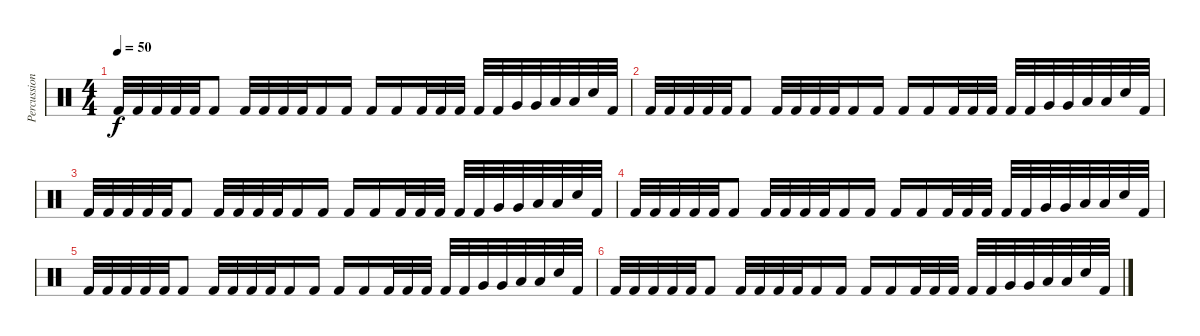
\track ("Percussions" "Percussion") {instrument percussion}
\staff {score}
\articulation defaults
\ts (4 4)
\tempo 50
\clef neutral
\ks c "Kick (hit) 2".32{dy f} "Kick (hit) 2".32 "Kick (hit) 2".32 "Kick (hit) 2".32 "Kick (hit) 2".32 "Kick (hit) 2".8 "Kick (hit) 2".32 "Kick (hit) 2".32 "Kick (hit) 2".32 "Kick (hit) 2".32 "Kick (hit) 2".16 "Kick (hit) 2".16 "Kick (hit) 2".16 "Kick (hit) 2".16 "Kick (hit) 2".32 "Kick (hit) 2".32 "Kick (hit) 2".32 "Kick (hit) 2".32 "Kick (hit) 2".32 "Very Low Tom (hit)".32 "Very Low Tom (hit)".32 "Low Floor Tom (hit)".32 "Low Floor Tom (hit)".32 "Snare (hit) 2".32 "Kick (hit) 2".32
|
"Kick (hit) 2".32 "Kick (hit) 2".32 "Kick (hit) 2".32 "Kick (hit) 2".32 "Kick (hit) 2".32 "Kick (hit) 2".8 "Kick (hit) 2".32 "Kick (hit) 2".32 "Kick (hit) 2".32 "Kick (hit) 2".32 "Kick (hit) 2".16 "Kick (hit) 2".16 "Kick (hit) 2".16 "Kick (hit) 2".16 "Kick (hit) 2".32 "Kick (hit) 2".32 "Kick (hit) 2".32 "Kick (hit) 2".32 "Kick (hit) 2".32 "Very Low Tom (hit)".32 "Very Low Tom (hit)".32 "Low Floor Tom (hit)".32 "Low Floor Tom (hit)".32 "Snare (hit) 2".32 "Kick (hit) 2".32 |
"Kick (hit) 2".32 "Kick (hit) 2".32 "Kick (hit) 2".32 "Kick (hit) 2".32 "Kick (hit) 2".32 "Kick (hit) 2".8 "Kick (hit) 2".32 "Kick (hit) 2".32 "Kick (hit) 2".32 "Kick (hit) 2".32 "Kick (hit) 2".16 "Kick (hit) 2".16 "Kick (hit) 2".16 "Kick (hit) 2".16 "Kick (hit) 2".32 "Kick (hit) 2".32 "Kick (hit) 2".32 "Kick (hit) 2".32 "Kick (hit) 2".32 "Very Low Tom (hit)".32 "Very Low Tom (hit)".32 "Low Floor Tom (hit)".32 "Low Floor Tom (hit)".32 "Snare (hit) 2".32 "Kick (hit) 2".32 |
"Kick (hit) 2".32 "Kick (hit) 2".32 "Kick (hit) 2".32 "Kick (hit) 2".32 "Kick (hit) 2".32 "Kick (hit) 2".8 "Kick (hit) 2".32 "Kick (hit) 2".32 "Kick (hit) 2".32 "Kick (hit) 2".32 "Kick (hit) 2".16 "Kick (hit) 2".16 "Kick (hit) 2".16 "Kick (hit) 2".16 "Kick (hit) 2".32 "Kick (hit) 2".32 "Kick (hit) 2".32 "Kick (hit) 2".32 "Kick (hit) 2".32 "Very Low Tom (hit)".32 "Very Low Tom (hit)".32 "Low Floor Tom (hit)".32 "Low Floor Tom (hit)".32 "Snare (hit) 2".32 "Kick (hit) 2".32 |
"Kick (hit) 2".32 "Kick (hit) 2".32 "Kick (hit) 2".32 "Kick (hit) 2".32 "Kick (hit) 2".32 "Kick (hit) 2".8 "Kick (hit) 2".32 "Kick (hit) 2".32 "Kick (hit) 2".32 "Kick (hit) 2".32 "Kick (hit) 2".16 "Kick (hit) 2".16 "Kick (hit) 2".16 "Kick (hit) 2".16 "Kick (hit) 2".32 "Kick (hit) 2".32 "Kick (hit) 2".32 "Kick (hit) 2".32 "Kick (hit) 2".32 "Very Low Tom (hit)".32 "Very Low Tom (hit)".32 "Low Floor Tom (hit)".32 "Low Floor Tom (hit)".32 "Snare (hit) 2".32 "Kick (hit) 2".32 |
"Kick (hit) 2".32 "Kick (hit) 2".32 "Kick (hit) 2".32 "Kick (hit) 2".32 "Kick (hit) 2".32 "Kick (hit) 2".8 "Kick (hit) 2".32 "Kick (hit) 2".32 "Kick (hit) 2".32 "Kick (hit) 2".32 "Kick (hit) 2".16 "Kick (hit) 2".16 "Kick (hit) 2".16 "Kick (hit) 2".16 "Kick (hit) 2".32 "Kick (hit) 2".32 "Kick (hit) 2".32 "Kick (hit) 2".32 "Kick (hit) 2".32 "Very Low Tom (hit)".32 "Very Low Tom (hit)".32 "Low Floor Tom (hit)".32 "Low Floor Tom (hit)".32 "Snare (hit) 2".32 "Kick (hit) 2".32
